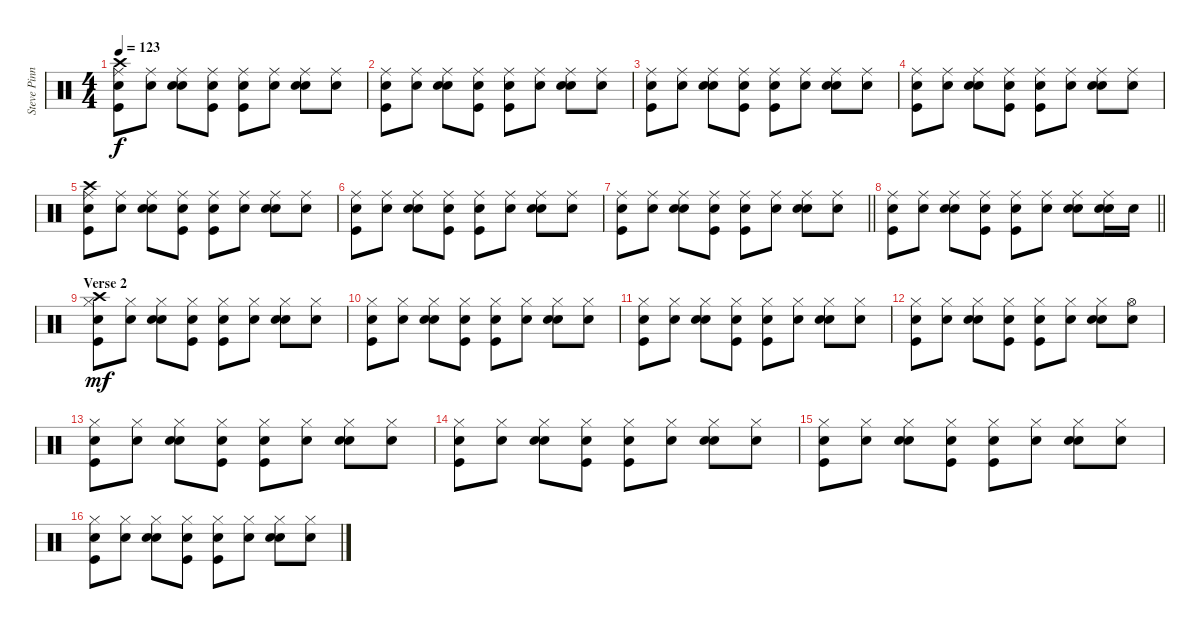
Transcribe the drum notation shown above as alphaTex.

\track ("Steve Pinnell - Drums" "Steve Pinn") {instrument percussion}
\staff {score}
\articulation defaults
\ts (4 4)
\tempo 123
\clef neutral
\ks c
("Crash high (hit)" "Kick (hit)" "Ride (middle)" "Snare (hit)").8{dy f} ("Ride (middle)" "Snare (hit)").8 ("Metronome (bell)" "Ride (middle)" "Snare (hit)").8 ("Kick (hit)" "Ride (middle)" "Snare (hit)").8 ("Kick (hit)" "Ride (middle)" "Snare (hit)").8 ("Ride (middle)" "Snare (hit)").8 ("Metronome (bell)" "Ride (middle)" "Snare (hit)").8 ("Ride (middle)" "Snare (hit)").8 |
("Kick (hit)" "Ride (middle)" "Snare (hit)").8 ("Ride (middle)" "Snare (hit)").8 ("Metronome (bell)" "Ride (middle)" "Snare (hit)").8 ("Kick (hit)" "Ride (middle)" "Snare (hit)").8 ("Kick (hit)" "Ride (middle)" "Snare (hit)").8 ("Ride (middle)" "Snare (hit)").8 ("Metronome (bell)" "Ride (middle)" "Snare (hit)").8 ("Ride (middle)" "Snare (hit)").8 |
("Kick (hit)" "Ride (middle)" "Snare (hit)").8 ("Ride (middle)" "Snare (hit)").8 ("Metronome (bell)" "Ride (middle)" "Snare (hit)").8 ("Kick (hit)" "Ride (middle)" "Snare (hit)").8 ("Kick (hit)" "Ride (middle)" "Snare (hit)").8 ("Ride (middle)" "Snare (hit)").8 ("Metronome (bell)" "Ride (middle)" "Snare (hit)").8 ("Ride (middle)" "Snare (hit)").8 |
("Kick (hit)" "Ride (middle)" "Snare (hit)").8 ("Ride (middle)" "Snare (hit)").8 ("Metronome (bell)" "Ride (middle)" "Snare (hit)").8 ("Kick (hit)" "Ride (middle)" "Snare (hit)").8 ("Kick (hit)" "Ride (middle)" "Snare (hit)").8 ("Ride (middle)" "Snare (hit)").8 ("Metronome (bell)" "Ride (middle)" "Snare (hit)").8 ("Ride (middle)" "Snare (hit)").8 |
("Crash high (hit)" "Kick (hit)" "Ride (middle)" "Snare (hit)").8 ("Ride (middle)" "Snare (hit)").8 ("Metronome (bell)" "Ride (middle)" "Snare (hit)").8 ("Kick (hit)" "Ride (middle)" "Snare (hit)").8 ("Kick (hit)" "Ride (middle)" "Snare (hit)").8 ("Ride (middle)" "Snare (hit)").8 ("Metronome (bell)" "Ride (middle)" "Snare (hit)").8 ("Ride (middle)" "Snare (hit)").8 |
("Kick (hit)" "Ride (middle)" "Snare (hit)").8 ("Ride (middle)" "Snare (hit)").8 ("Metronome (bell)" "Ride (middle)" "Snare (hit)").8 ("Kick (hit)" "Ride (middle)" "Snare (hit)").8 ("Kick (hit)" "Ride (middle)" "Snare (hit)").8 ("Ride (middle)" "Snare (hit)").8 ("Metronome (bell)" "Ride (middle)" "Snare (hit)").8 ("Ride (middle)" "Snare (hit)").8 |
\barLineRight lightlight
("Kick (hit)" "Ride (middle)" "Snare (hit)").8 ("Ride (middle)" "Snare (hit)").8 ("Metronome (bell)" "Ride (middle)" "Snare (hit)").8 ("Kick (hit)" "Ride (middle)" "Snare (hit)").8 ("Kick (hit)" "Ride (middle)" "Snare (hit)").8 ("Ride (middle)" "Snare (hit)").8 ("Metronome (bell)" "Ride (middle)" "Snare (hit)").8 ("Ride (middle)" "Snare (hit)").8 |
\barLineRight lightlight
("Kick (hit)" "Ride (middle)" "Snare (hit)").8 ("Ride (middle)" "Snare (hit)").8 ("Metronome (bell)" "Ride (middle)" "Snare (hit)").8 ("Kick (hit)" "Ride (middle)" "Snare (hit)").8 ("Kick (hit)" "Ride (middle)" "Snare (hit)").8 ("Ride (middle)" "Snare (hit)").8 ("Metronome (bell)" "Ride (middle)" "Snare (hit)").8 ("Metronome (bell)" "Ride (middle)" "Snare (hit)").16 "Metronome (bell)".16 |
\section ("" "Verse 2")
("Crash high (hit)" "Kick (hit)" "Hi-Hat (closed)" "Snare (hit)").8{dy mf volume 16 balance 8} ("Hi-Hat (closed)" "Snare (hit)").8 ("Metronome (bell)" "Hi-Hat (closed)" "Snare (hit)").8 ("Kick (hit)" "Hi-Hat (closed)" "Snare (hit)").8 ("Kick (hit)" "Hi-Hat (closed)" "Snare (hit)").8 ("Hi-Hat (closed)" "Snare (hit)").8 ("Metronome (bell)" "Hi-Hat (closed)" "Snare (hit)").8 ("Hi-Hat (closed)" "Snare (hit)").8 |
("Kick (hit)" "Hi-Hat (closed)" "Snare (hit)").8 ("Hi-Hat (closed)" "Snare (hit)").8 ("Metronome (bell)" "Hi-Hat (closed)" "Snare (hit)").8 ("Kick (hit)" "Hi-Hat (closed)" "Snare (hit)").8 ("Kick (hit)" "Hi-Hat (closed)" "Snare (hit)").8 ("Hi-Hat (closed)" "Snare (hit)").8 ("Metronome (bell)" "Hi-Hat (closed)" "Snare (hit)").8 ("Hi-Hat (closed)" "Snare (hit)").8 |
("Kick (hit)" "Hi-Hat (closed)" "Snare (hit)").8 ("Hi-Hat (closed)" "Snare (hit)").8 ("Metronome (bell)" "Hi-Hat (closed)" "Snare (hit)").8 ("Kick (hit)" "Hi-Hat (closed)" "Snare (hit)").8 ("Kick (hit)" "Hi-Hat (closed)" "Snare (hit)").8 ("Hi-Hat (closed)" "Snare (hit)").8 ("Metronome (bell)" "Hi-Hat (closed)" "Snare (hit)").8 ("Hi-Hat (closed)" "Snare (hit)").8 |
("Kick (hit)" "Hi-Hat (closed)" "Snare (hit)").8 ("Hi-Hat (closed)" "Snare (hit)").8 ("Metronome (bell)" "Hi-Hat (closed)" "Snare (hit)").8 ("Kick (hit)" "Hi-Hat (closed)" "Snare (hit)").8 ("Kick (hit)" "Hi-Hat (closed)" "Snare (hit)").8 ("Hi-Hat (closed)" "Snare (hit)").8 ("Metronome (bell)" "Hi-Hat (closed)" "Snare (hit)").8 ("Hi-Hat (open)" "Snare (hit)").8 |
("Kick (hit)" "Hi-Hat (closed)" "Snare (hit)").8 ("Hi-Hat (closed)" "Snare (hit)").8 ("Metronome (bell)" "Hi-Hat (closed)" "Snare (hit)").8 ("Kick (hit)" "Hi-Hat (closed)" "Snare (hit)").8 ("Kick (hit)" "Hi-Hat (closed)" "Snare (hit)").8 ("Hi-Hat (closed)" "Snare (hit)").8 ("Metronome (bell)" "Hi-Hat (closed)" "Snare (hit)").8 ("Hi-Hat (closed)" "Snare (hit)").8 |
("Kick (hit)" "Hi-Hat (closed)" "Snare (hit)").8 ("Hi-Hat (closed)" "Snare (hit)").8 ("Metronome (bell)" "Hi-Hat (closed)" "Snare (hit)").8 ("Kick (hit)" "Hi-Hat (closed)" "Snare (hit)").8 ("Kick (hit)" "Hi-Hat (closed)" "Snare (hit)").8 ("Hi-Hat (closed)" "Snare (hit)").8 ("Metronome (bell)" "Hi-Hat (closed)" "Snare (hit)").8 ("Hi-Hat (closed)" "Snare (hit)").8 |
("Kick (hit)" "Hi-Hat (closed)" "Snare (hit)").8 ("Hi-Hat (closed)" "Snare (hit)").8 ("Metronome (bell)" "Hi-Hat (closed)" "Snare (hit)").8 ("Kick (hit)" "Hi-Hat (closed)" "Snare (hit)").8 ("Kick (hit)" "Hi-Hat (closed)" "Snare (hit)").8 ("Hi-Hat (closed)" "Snare (hit)").8 ("Metronome (bell)" "Hi-Hat (closed)" "Snare (hit)").8 ("Hi-Hat (closed)" "Snare (hit)").8 |
("Kick (hit)" "Hi-Hat (closed)" "Snare (hit)").8 ("Hi-Hat (closed)" "Snare (hit)").8 ("Metronome (bell)" "Hi-Hat (closed)" "Snare (hit)").8 ("Kick (hit)" "Hi-Hat (closed)" "Snare (hit)").8 ("Kick (hit)" "Hi-Hat (closed)" "Snare (hit)").8 ("Hi-Hat (closed)" "Snare (hit)").8 ("Metronome (bell)" "Hi-Hat (closed)" "Snare (hit)").8 ("Hi-Hat (closed)" "Snare (hit)").8
